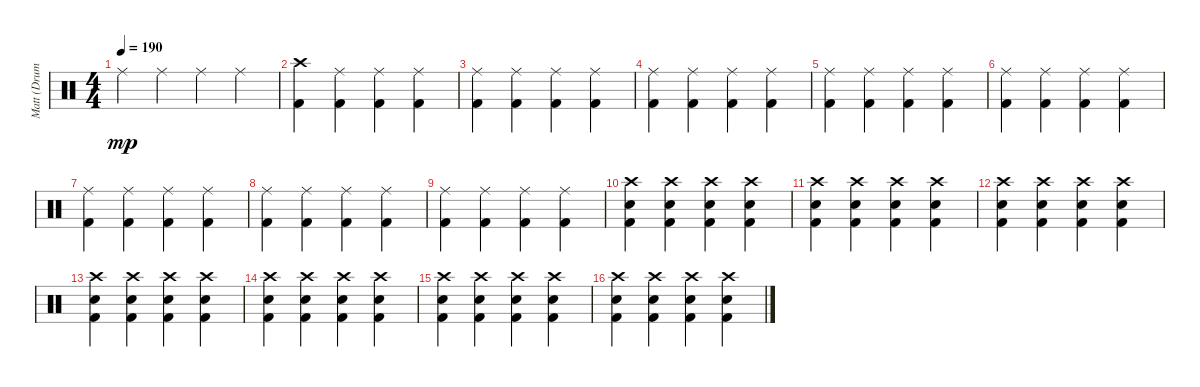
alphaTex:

\track ("Matt (Drums)" "Matt (Drum") {instrument percussion}
\staff {score}
\articulation defaults
\ts (4 4)
\tempo 190
\clef neutral
\ks c "Ride (middle)".4{dy mp} "Ride (middle)".4 "Ride (middle)".4 "Ride (middle)".4
|
("Crash high (hit)" "Kick (hit) 2").4 ("Ride (middle)" "Kick (hit) 2").4 ("Ride (middle)" "Kick (hit) 2").4 ("Ride (middle)" "Kick (hit) 2").4 |
("Ride (middle)" "Kick (hit) 2").4 ("Ride (middle)" "Kick (hit) 2").4 ("Ride (middle)" "Kick (hit) 2").4 ("Ride (middle)" "Kick (hit) 2").4 |
("Ride (middle)" "Kick (hit) 2").4 ("Ride (middle)" "Kick (hit) 2").4 ("Ride (middle)" "Kick (hit) 2").4 ("Ride (middle)" "Kick (hit) 2").4 |
("Ride (middle)" "Kick (hit) 2").4 ("Ride (middle)" "Kick (hit) 2").4 ("Ride (middle)" "Kick (hit) 2").4 ("Ride (middle)" "Kick (hit) 2").4 |
("Ride (middle)" "Kick (hit) 2").4 ("Ride (middle)" "Kick (hit) 2").4 ("Ride (middle)" "Kick (hit) 2").4 ("Ride (middle)" "Kick (hit) 2").4 |
("Ride (middle)" "Kick (hit) 2").4 ("Ride (middle)" "Kick (hit) 2").4 ("Ride (middle)" "Kick (hit) 2").4 ("Ride (middle)" "Kick (hit) 2").4 |
("Ride (middle)" "Kick (hit) 2").4 ("Ride (middle)" "Kick (hit) 2").4 ("Ride (middle)" "Kick (hit) 2").4 ("Ride (middle)" "Kick (hit) 2").4 |
("Ride (middle)" "Kick (hit) 2").4 ("Ride (middle)" "Kick (hit) 2").4 ("Ride (middle)" "Kick (hit) 2").4 ("Ride (middle)" "Kick (hit) 2").4 |
("Crash high (hit)" "Snare (hit) 2" "Kick (hit) 2").4 ("Crash high (hit)" "Snare (hit) 2" "Kick (hit) 2").4 ("Crash high (hit)" "Snare (hit) 2" "Kick (hit) 2").4 ("Crash high (hit)" "Snare (hit) 2" "Kick (hit) 2").4 |
("Crash high (hit)" "Snare (hit) 2" "Kick (hit) 2").4 ("Crash high (hit)" "Snare (hit) 2" "Kick (hit) 2").4 ("Crash high (hit)" "Snare (hit) 2" "Kick (hit) 2").4 ("Crash high (hit)" "Snare (hit) 2" "Kick (hit) 2").4 |
("Crash high (hit)" "Snare (hit) 2" "Kick (hit) 2").4 ("Crash high (hit)" "Snare (hit) 2" "Kick (hit) 2").4 ("Crash high (hit)" "Snare (hit) 2" "Kick (hit) 2").4 ("Crash high (hit)" "Snare (hit) 2" "Kick (hit) 2").4 |
("Crash high (hit)" "Snare (hit) 2" "Kick (hit) 2").4 ("Crash high (hit)" "Snare (hit) 2" "Kick (hit) 2").4 ("Crash high (hit)" "Snare (hit) 2" "Kick (hit) 2").4 ("Crash high (hit)" "Snare (hit) 2" "Kick (hit) 2").4 |
("Crash high (hit)" "Snare (hit) 2" "Kick (hit) 2").4 ("Crash high (hit)" "Snare (hit) 2" "Kick (hit) 2").4 ("Crash high (hit)" "Snare (hit) 2" "Kick (hit) 2").4 ("Crash high (hit)" "Snare (hit) 2" "Kick (hit) 2").4 |
("Crash high (hit)" "Snare (hit) 2" "Kick (hit) 2").4 ("Crash high (hit)" "Snare (hit) 2" "Kick (hit) 2").4 ("Crash high (hit)" "Snare (hit) 2" "Kick (hit) 2").4 ("Crash high (hit)" "Snare (hit) 2" "Kick (hit) 2").4 |
("Crash high (hit)" "Snare (hit) 2" "Kick (hit) 2").4 ("Crash high (hit)" "Snare (hit) 2" "Kick (hit) 2").4 ("Crash high (hit)" "Snare (hit) 2" "Kick (hit) 2").4 ("Crash high (hit)" "Snare (hit) 2" "Kick (hit) 2").4
